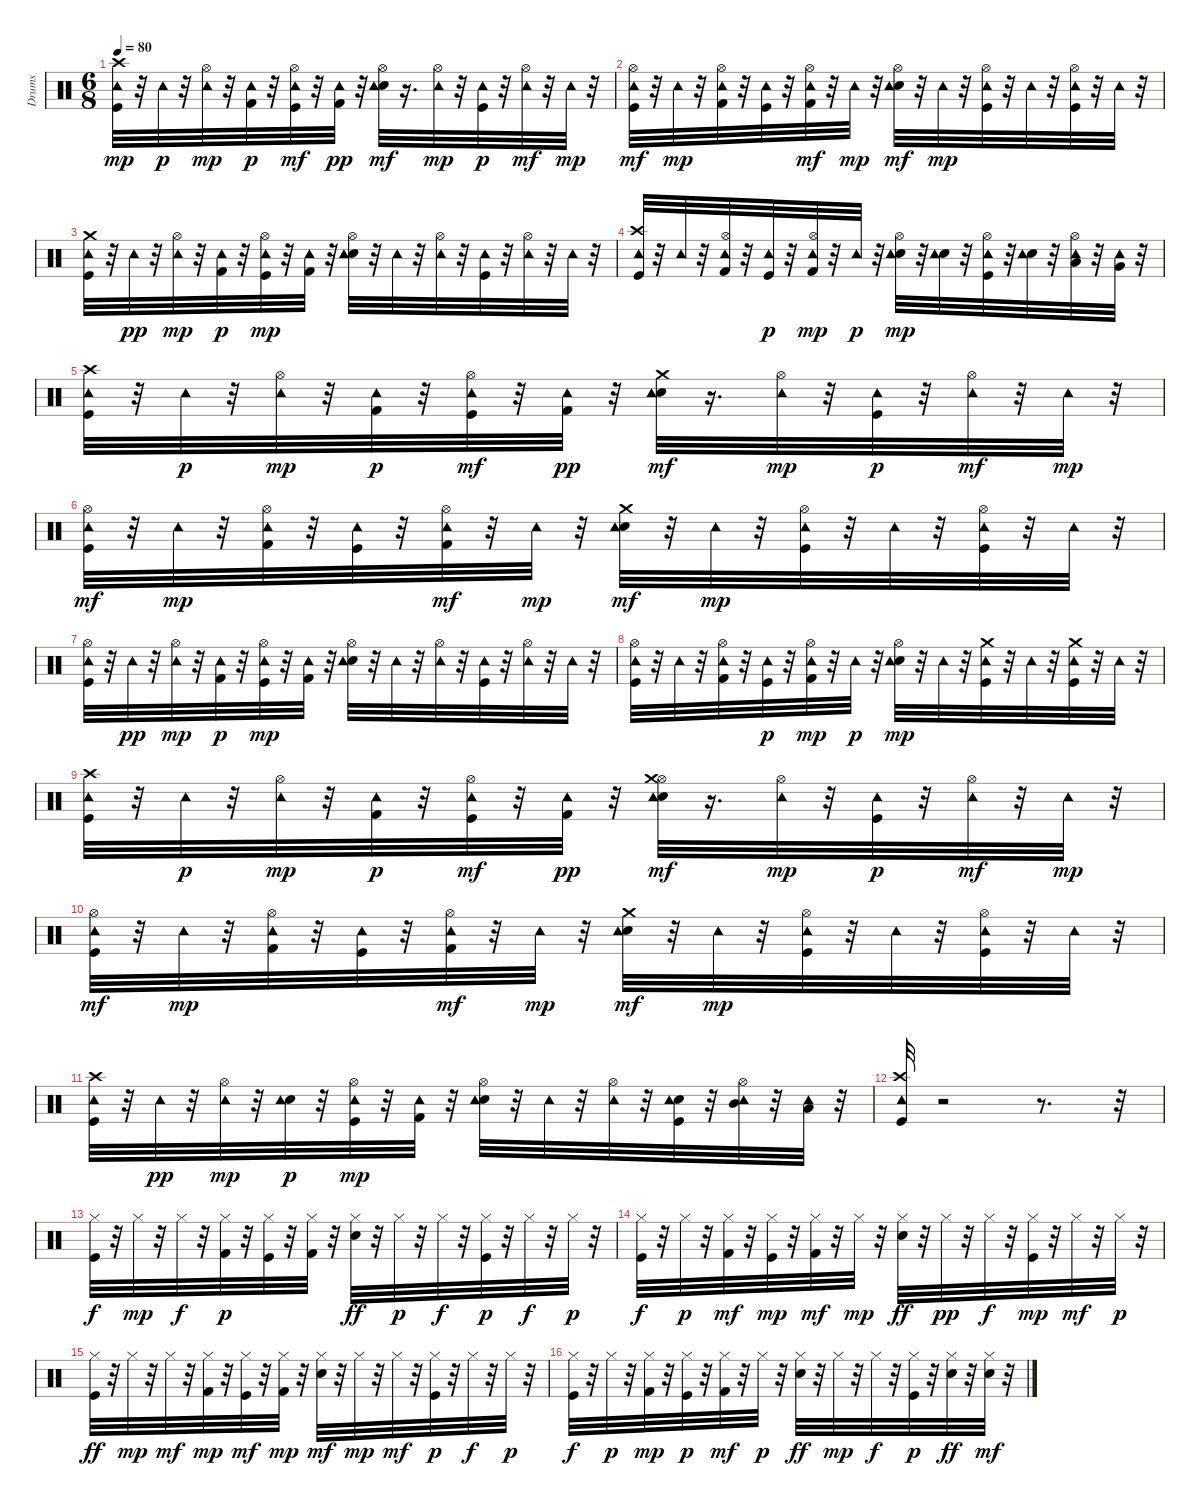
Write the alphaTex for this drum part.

\track ("Drums" "Drums") {instrument percussion}
\staff {score}
\articulation defaults
\ts (6 8)
\tempo 80
\clef neutral
\ks c
("Kick (hit)" "Crash high (hit)" "Tambourine (hit)").32{dy mp} r.32 "Tambourine (hit)".32{dy p} r.32 ("Hi-Hat (open)" "Tambourine (hit)").32{dy mp} r.32 ("Kick (hit) 2" "Tambourine (hit)").32{dy p} r.32 ("Kick (hit)" "Hi-Hat (open)" "Tambourine (hit)").32{dy mf} r.32 ("Kick (hit) 2" "Tambourine (hit)").32{dy pp} r.32 ("Electric Snare (hit)" "Hi-Hat (open)" "Tambourine (hit)").32{dy mf} r.16{d} ("Hi-Hat (open)" "Tambourine (hit)").32{dy mp} r.32 ("Kick (hit)" "Tambourine (hit)").32{dy p} r.32 ("Hi-Hat (open)" "Tambourine (hit)").32{dy mf} r.32 "Tambourine (hit)".32{dy mp} r.32 |
("Kick (hit)" "Hi-Hat (open)" "Tambourine (hit)").32{dy mf} r.32 "Tambourine (hit)".32{dy mp} r.32 ("Kick (hit) 2" "Hi-Hat (open)" "Tambourine (hit)").32 r.32 ("Kick (hit)" "Tambourine (hit)").32 r.32 ("Kick (hit) 2" "Hi-Hat (open)" "Tambourine (hit)").32{dy mf} r.32 "Tambourine (hit)".32{dy mp} r.32 ("Electric Snare (hit)" "Hi-Hat (open)" "Tambourine (hit)").32{dy mf} r.32 "Tambourine (hit)".32{dy mp} r.32 ("Kick (hit)" "Hi-Hat (open)" "Tambourine (hit)").32 r.32 "Tambourine (hit)".32 r.32 ("Kick (hit)" "Hi-Hat (open)" "Tambourine (hit)").32 r.32 "Tambourine (hit)".32 r.32 |
("Kick (hit)" "Tambourine (hit)" "Crash medium (hit)").32 r.32 "Tambourine (hit)".32{dy pp} r.32 ("Hi-Hat (open)" "Tambourine (hit)").32{dy mp} r.32 ("Kick (hit) 2" "Tambourine (hit)").32{dy p} r.32 ("Kick (hit)" "Hi-Hat (open)" "Tambourine (hit)").32{dy mp} r.32 ("Kick (hit) 2" "Tambourine (hit)").32 r.32 ("Electric Snare (hit)" "Hi-Hat (open)" "Tambourine (hit)").32 r.32 "Tambourine (hit)".32 r.32 ("Hi-Hat (open)" "Tambourine (hit)").32 r.32 ("Kick (hit)" "Tambourine (hit)").32 r.32 ("Hi-Hat (open)" "Tambourine (hit)").32 r.32 "Tambourine (hit)".32 r.32 |
("Kick (hit)" "Crash high (hit)" "Tambourine (hit)").32 r.32 "Tambourine (hit)".32 r.32 ("Kick (hit) 2" "Hi-Hat (open)" "Tambourine (hit)").32 r.32 ("Kick (hit)" "Tambourine (hit)").32{dy p} r.32 ("Kick (hit) 2" "Hi-Hat (open)" "Tambourine (hit)").32{dy mp} r.32 "Tambourine (hit)".32{dy p} r.32 ("Electric Snare (hit)" "Hi-Hat (open)" "Tambourine (hit)").32{dy mp} r.32 ("Electric Snare (hit)" "Tambourine (hit)").32 r.32 ("Kick (hit)" "Hi-Hat (open)" "Tambourine (hit)").32 r.32 ("Electric Snare (hit)" "Tambourine (hit)").32 r.32 ("Low Tom (hit)" "Hi-Hat (open)" "Tambourine (hit)").32 r.32 ("Very Low Tom (hit)" "Tambourine (hit)").32 r.32 |
("Kick (hit)" "Crash high (hit)" "Tambourine (hit)").32 r.32 "Tambourine (hit)".32{dy p} r.32 ("Hi-Hat (open)" "Tambourine (hit)").32{dy mp} r.32 ("Kick (hit) 2" "Tambourine (hit)").32{dy p} r.32 ("Kick (hit)" "Hi-Hat (open)" "Tambourine (hit)").32{dy mf} r.32 ("Kick (hit) 2" "Tambourine (hit)").32{dy pp} r.32 ("Electric Snare (hit)" "Tambourine (hit)" "Crash medium (hit)").32{dy mf} r.16{d} ("Hi-Hat (open)" "Tambourine (hit)").32{dy mp} r.32 ("Kick (hit)" "Tambourine (hit)").32{dy p} r.32 ("Hi-Hat (open)" "Tambourine (hit)").32{dy mf} r.32 "Tambourine (hit)".32{dy mp} r.32 |
("Kick (hit)" "Hi-Hat (open)" "Tambourine (hit)").32{dy mf} r.32 "Tambourine (hit)".32{dy mp} r.32 ("Kick (hit) 2" "Hi-Hat (open)" "Tambourine (hit)").32 r.32 ("Kick (hit)" "Tambourine (hit)").32 r.32 ("Kick (hit) 2" "Hi-Hat (open)" "Tambourine (hit)").32{dy mf} r.32 "Tambourine (hit)".32{dy mp} r.32 ("Electric Snare (hit)" "Tambourine (hit)" "Crash medium (hit)").32{dy mf} r.32 "Tambourine (hit)".32{dy mp} r.32 ("Kick (hit)" "Hi-Hat (open)" "Tambourine (hit)").32 r.32 "Tambourine (hit)".32 r.32 ("Kick (hit)" "Hi-Hat (open)" "Tambourine (hit)").32 r.32 "Tambourine (hit)".32 r.32 |
("Kick (hit)" "Hi-Hat (open)" "Tambourine (hit)").32 r.32 "Tambourine (hit)".32{dy pp} r.32 ("Hi-Hat (open)" "Tambourine (hit)").32{dy mp} r.32 ("Kick (hit) 2" "Tambourine (hit)").32{dy p} r.32 ("Kick (hit)" "Hi-Hat (open)" "Tambourine (hit)").32{dy mp} r.32 ("Kick (hit) 2" "Tambourine (hit)").32 r.32 ("Electric Snare (hit)" "Hi-Hat (open)" "Tambourine (hit)").32 r.32 "Tambourine (hit)".32 r.32 ("Hi-Hat (open)" "Tambourine (hit)").32 r.32 ("Kick (hit)" "Tambourine (hit)").32 r.32 ("Hi-Hat (open)" "Tambourine (hit)").32 r.32 "Tambourine (hit)".32 r.32 |
("Kick (hit)" "Hi-Hat (open)" "Tambourine (hit)").32 r.32 "Tambourine (hit)".32 r.32 ("Kick (hit) 2" "Hi-Hat (open)" "Tambourine (hit)").32 r.32 ("Kick (hit)" "Tambourine (hit)").32{dy p} r.32 ("Kick (hit) 2" "Hi-Hat (open)" "Tambourine (hit)").32{dy mp} r.32 "Tambourine (hit)".32{dy p} r.32 ("Electric Snare (hit)" "Hi-Hat (open)" "Tambourine (hit)").32{dy mp} r.32 "Tambourine (hit)".32 r.32 ("Kick (hit)" "Tambourine (hit)" "Crash medium (hit)").32 r.32 "Tambourine (hit)".32 r.32 ("Kick (hit)" "Tambourine (hit)" "Crash medium (hit)").32 r.32 "Tambourine (hit)".32 r.32 |
("Kick (hit)" "Crash high (hit)" "Tambourine (hit)").32 r.32 "Tambourine (hit)".32{dy p} r.32 ("Hi-Hat (open)" "Tambourine (hit)").32{dy mp} r.32 ("Kick (hit) 2" "Tambourine (hit)").32{dy p} r.32 ("Kick (hit)" "Hi-Hat (open)" "Tambourine (hit)").32{dy mf} r.32 ("Kick (hit) 2" "Tambourine (hit)").32{dy pp} r.32 ("Electric Snare (hit)" "Hi-Hat (open)" "Tambourine (hit)" "Crash medium (hit)").32{dy mf} r.16{d} ("Hi-Hat (open)" "Tambourine (hit)").32{dy mp} r.32 ("Kick (hit)" "Tambourine (hit)").32{dy p} r.32 ("Hi-Hat (open)" "Tambourine (hit)").32{dy mf} r.32 "Tambourine (hit)".32{dy mp} r.32 |
("Kick (hit)" "Hi-Hat (open)" "Tambourine (hit)").32{dy mf} r.32 "Tambourine (hit)".32{dy mp} r.32 ("Kick (hit) 2" "Hi-Hat (open)" "Tambourine (hit)").32 r.32 ("Kick (hit)" "Tambourine (hit)").32 r.32 ("Kick (hit) 2" "Hi-Hat (open)" "Tambourine (hit)").32{dy mf} r.32 "Tambourine (hit)".32{dy mp} r.32 ("Electric Snare (hit)" "Tambourine (hit)" "Crash medium (hit)").32{dy mf} r.32 "Tambourine (hit)".32{dy mp} r.32 ("Kick (hit)" "Hi-Hat (open)" "Tambourine (hit)").32 r.32 "Tambourine (hit)".32 r.32 ("Kick (hit)" "Hi-Hat (open)" "Tambourine (hit)").32 r.32 "Tambourine (hit)".32 r.32 |
("Kick (hit)" "Crash high (hit)" "Tambourine (hit)").32 r.32 "Tambourine (hit)".32{dy pp} r.32 ("Hi-Hat (open)" "Tambourine (hit)").32{dy mp} r.32 ("Electric Snare (hit)" "Tambourine (hit)").32{dy p} r.32 ("Kick (hit)" "Hi-Hat (open)" "Tambourine (hit)").32{dy mp} r.32 ("Kick (hit) 2" "Tambourine (hit)").32 r.32 ("Electric Snare (hit)" "Hi-Hat (open)" "Tambourine (hit)").32 r.32 "Tambourine (hit)".32 r.32 ("Hi-Hat (open)" "Tambourine (hit)").32 r.32 ("Electric Snare (hit)" "Kick (hit)" "Tambourine (hit)").32 r.32 ("Mid Tom (hit)" "Hi-Hat (open)" "Tambourine (hit)").32 r.32 ("Tambourine (hit)" "Low Tom (hit)").32 r.32 |
("Kick (hit)" "Crash high (hit)" "Tambourine (hit)").32 r.2 r.8{d} r.32 |
("Kick (hit)" "Hi-Hat (closed)").32{dy f} r.32 "Hi-Hat (closed)".32{dy mp} r.32 "Hi-Hat (closed)".32{dy f} r.32 ("Kick (hit) 2" "Hi-Hat (closed)").32{dy p} r.32 ("Kick (hit)" "Hi-Hat (closed)").32 r.32 ("Kick (hit) 2" "Hi-Hat (closed)").32 r.32 ("Electric Snare (hit)" "Hi-Hat (closed)").32{dy ff} r.32 "Hi-Hat (closed)".32{dy p} r.32 "Hi-Hat (closed)".32{dy f} r.32 ("Kick (hit)" "Hi-Hat (closed)").32{dy p} r.32 "Hi-Hat (closed)".32{dy f} r.32 "Hi-Hat (closed)".32{dy p} r.32 |
("Kick (hit)" "Hi-Hat (closed)").32{dy f} r.32 "Hi-Hat (closed)".32{dy p} r.32 ("Kick (hit) 2" "Hi-Hat (closed)").32{dy mf} r.32 ("Kick (hit)" "Hi-Hat (closed)").32{dy mp} r.32 ("Kick (hit) 2" "Hi-Hat (closed)").32{dy mf} r.32 "Hi-Hat (closed)".32{dy mp} r.32 ("Electric Snare (hit)" "Hi-Hat (closed)").32{dy ff} r.32 "Hi-Hat (closed)".32{dy pp} r.32 "Hi-Hat (closed)".32{dy f} r.32 ("Kick (hit)" "Hi-Hat (closed)").32{dy mp} r.32 "Hi-Hat (closed)".32{dy mf} r.32 "Hi-Hat (closed)".32{dy p} r.32 |
("Kick (hit)" "Hi-Hat (closed)").32{dy ff} r.32 "Hi-Hat (closed)".32{dy mp} r.32 "Hi-Hat (closed)".32{dy mf} r.32 ("Kick (hit) 2" "Hi-Hat (closed)").32{dy mp} r.32 ("Kick (hit)" "Hi-Hat (closed)").32{dy mf} r.32 ("Kick (hit) 2" "Hi-Hat (closed)").32{dy mp} r.32 ("Electric Snare (hit)" "Hi-Hat (closed)").32{dy mf} r.32 "Hi-Hat (closed)".32{dy mp} r.32 "Hi-Hat (closed)".32{dy mf} r.32 ("Kick (hit)" "Hi-Hat (closed)").32{dy p} r.32 "Hi-Hat (closed)".32{dy f} r.32 "Hi-Hat (closed)".32{dy p} r.32 |
("Kick (hit)" "Hi-Hat (closed)").32{dy f} r.32 "Hi-Hat (closed)".32{dy p} r.32 ("Kick (hit) 2" "Hi-Hat (closed)").32{dy mp} r.32 ("Kick (hit)" "Hi-Hat (closed)").32{dy p} r.32 ("Kick (hit) 2" "Hi-Hat (closed)").32{dy mf} r.32 "Hi-Hat (closed)".32{dy p} r.32 ("Electric Snare (hit)" "Hi-Hat (closed)").32{dy ff} r.32 "Hi-Hat (closed)".32{dy mp} r.32 "Hi-Hat (closed)".32{dy f} r.32 ("Kick (hit)" "Hi-Hat (closed)").32{dy p} r.32 ("Electric Snare (hit)" "Hi-Hat (closed)").32{dy ff} r.32 ("Electric Snare (hit)" "Hi-Hat (closed)").32{dy mf} r.32
